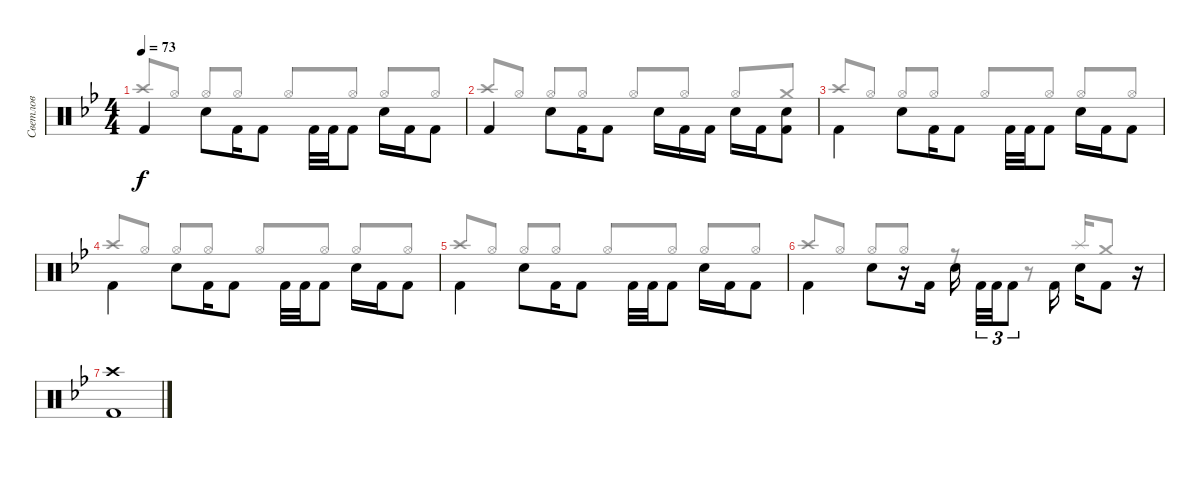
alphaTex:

\track ("Светлов" "Светлов") {instrument percussion}
\staff {score}
\articulation defaults
\voice
\ts (4 4)
\tempo 73
\clef neutral
\ks gminor "Kick (hit) 2".4{dy f beam Up} "Electric Snare (hit)".8{beam Down} "Kick (hit) 2".16{beam Down} "Kick (hit) 2".8{beam Down} "Kick (hit) 2".32{beam Down} "Kick (hit) 2".32{beam Down} "Kick (hit) 2".8{beam Down} "Electric Snare (hit)".16{beam Down} "Kick (hit) 2".16{beam Down} "Kick (hit) 2".8{beam Down}
|
"Kick (hit) 2".4{beam Up} "Electric Snare (hit)".8{beam Down} "Kick (hit) 2".16{beam Down} "Kick (hit) 2".8{beam Down} "Electric Snare (hit)".16{beam Down} "Kick (hit) 2".16{beam Down} "Kick (hit) 2".16{beam Down} "Electric Snare (hit)".16{beam Down} "Kick (hit) 2".16{beam Down} ("Electric Snare (hit)" "Kick (hit) 2").8{beam Down} |
"Kick (hit) 2".4{beam Down} "Electric Snare (hit)".8{beam Down} "Kick (hit) 2".16{beam Down} "Kick (hit) 2".8{beam Down} "Kick (hit) 2".32{beam Down} "Kick (hit) 2".32{beam Down} "Kick (hit) 2".8{beam Down} "Electric Snare (hit)".16{beam Down} "Kick (hit) 2".16{beam Down} "Kick (hit) 2".8{beam Down} |
"Kick (hit) 2".4{beam Down} "Electric Snare (hit)".8{beam Down} "Kick (hit) 2".16{beam Down} "Kick (hit) 2".8{beam Down} "Kick (hit) 2".32{beam Down} "Kick (hit) 2".32{beam Down} "Kick (hit) 2".8{beam Down} "Electric Snare (hit)".16{beam Down} "Kick (hit) 2".16{beam Down} "Kick (hit) 2".8{beam Down} |
"Kick (hit) 2".4{beam Down} "Electric Snare (hit)".8{beam Down} "Kick (hit) 2".16{beam Down} "Kick (hit) 2".8{beam Down} "Kick (hit) 2".32{beam Down} "Kick (hit) 2".32{beam Down} "Kick (hit) 2".8{beam Down} "Electric Snare (hit)".16{beam Down} "Kick (hit) 2".16{beam Down} "Kick (hit) 2".8{beam Down} |
"Kick (hit) 2".4{beam Down} "Electric Snare (hit)".8{beam Down} r.16 "Kick (hit) 2".16{beam Down} "Electric Snare (hit)".16{beam Down beam splitsecondary} "Kick (hit) 2".32{tu (3 2) beam Down} "Kick (hit) 2".32{tu (3 2) beam Down} "Kick (hit) 2".8{tu (3 2) beam Down} "Kick (hit) 2".16{beam Down} "Electric Snare (hit)".16{beam Down} "Kick (hit) 2".8{beam Down} r.16 |
("Crash high (hit)" "Kick (hit) 2").1 |
|
|
\voice
\clef neutral
\ottava regular
\simile none
\ks gminor "Crash high (hit)".8{dy f beam Up} "Hi-Hat (open)".8{beam Up} "Hi-Hat (open)".8{beam Up} "Hi-Hat (open)".8{beam Up} "Hi-Hat (open)".8{beam Up} "Hi-Hat (open)".8{beam Up} "Hi-Hat (open)".8{beam Up} "Hi-Hat (open)".8{beam Up}
|
"Crash high (hit)".8{beam Up} "Hi-Hat (open)".8{beam Up} "Hi-Hat (open)".8{beam Up} "Hi-Hat (open)".8{beam Up} "Hi-Hat (open)".8{beam Up} "Hi-Hat (open)".8{beam Up} "Hi-Hat (open)".8{beam Up} "Crash medium (hit)".8{beam Up} |
"Crash high (hit)".8{beam Up} "Hi-Hat (open)".8{beam Up} "Hi-Hat (open)".8{beam Up} "Hi-Hat (open)".8{beam Up} "Hi-Hat (open)".8{beam Up} "Hi-Hat (open)".8{beam Up} "Hi-Hat (open)".8{beam Up} "Hi-Hat (open)".8{beam Up} |
"Crash high (hit)".8{beam Up} "Hi-Hat (open)".8{beam Up} "Hi-Hat (open)".8{beam Up} "Hi-Hat (open)".8{beam Up} "Hi-Hat (open)".8{beam Up} "Hi-Hat (open)".8{beam Up} "Hi-Hat (open)".8{beam Up} "Hi-Hat (open)".8{beam Up} |
"Crash high (hit)".8{beam Up} "Hi-Hat (open)".8{beam Up} "Hi-Hat (open)".8{beam Up} "Hi-Hat (open)".8{beam Up} "Hi-Hat (open)".8{beam Up} "Hi-Hat (open)".8{beam Up} "Hi-Hat (open)".8{beam Up} "Hi-Hat (open)".8{beam Up} |
"Crash high (hit)".8{beam Up} "Hi-Hat (open)".8{beam Up} "Hi-Hat (open)".8{beam Up} "Hi-Hat (open)".8{beam Up} r.8 r.8 "Splash (hit)".16{beam Up} "Crash medium (hit)".8{beam Up} r.16 |
|
|
|
